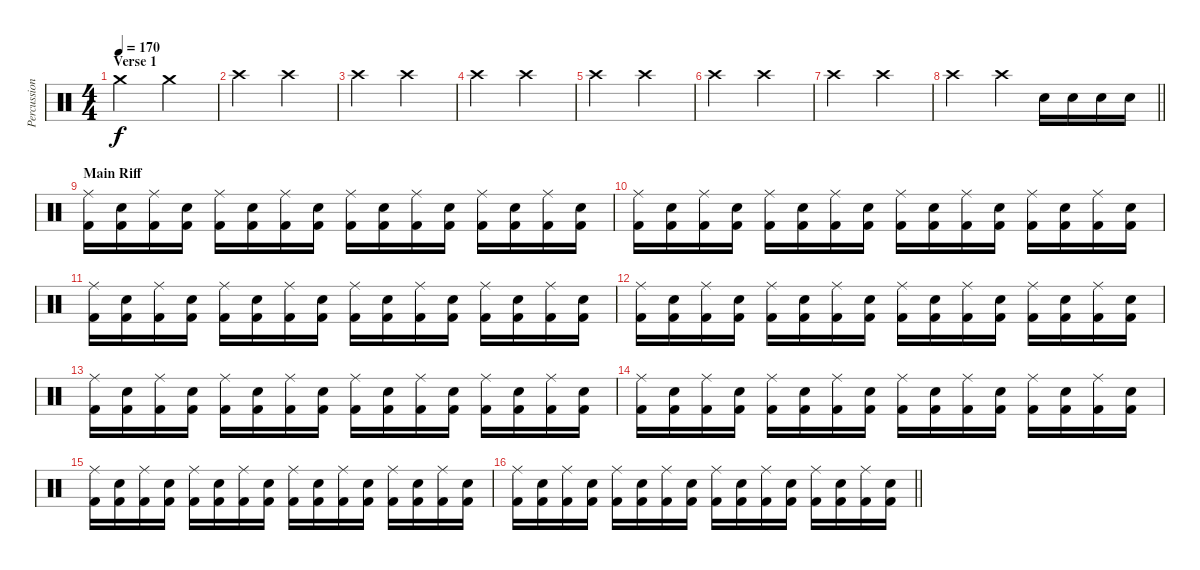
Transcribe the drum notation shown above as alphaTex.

\track ("Percussion" "Percussion") {instrument percussion}
\staff {score}
\articulation defaults
\ts (4 4)
\section ("" "Verse 1")
\tempo 170
\clef neutral
\ks c "Crash medium (hit)".2{dy f} "Crash medium (hit)".2
|
"Crash high (hit)".2 "Crash high (hit)".2 |
"Crash high (hit)".2 "Crash high (hit)".2 |
"Crash high (hit)".2 "Crash high (hit)".2 |
"Crash high (hit)".2 "Crash high (hit)".2 |
"Crash high (hit)".2 "Crash high (hit)".2 |
"Crash high (hit)".2 "Crash high (hit)".2 |
\barLineRight lightlight "Crash high (hit)".2 "Crash high (hit)".4 "Snare (hit) 2".16 "Snare (hit) 2".16 "Snare (hit) 2".16 "Snare (hit) 2".16
|
\section ("" "Main Riff")
("Ride (middle)" "Kick (hit) 2").16 ("Electric Snare (hit)" "Kick (hit) 2").16 ("Ride (middle)" "Kick (hit) 2").16 ("Electric Snare (hit)" "Kick (hit) 2").16 ("Ride (middle)" "Kick (hit) 2").16 ("Electric Snare (hit)" "Kick (hit) 2").16 ("Ride (middle)" "Kick (hit) 2").16 ("Electric Snare (hit)" "Kick (hit) 2").16 ("Ride (middle)" "Kick (hit) 2").16 ("Electric Snare (hit)" "Kick (hit) 2").16 ("Ride (middle)" "Kick (hit) 2").16 ("Electric Snare (hit)" "Kick (hit) 2").16 ("Ride (middle)" "Kick (hit) 2").16 ("Electric Snare (hit)" "Kick (hit) 2").16 ("Ride (middle)" "Kick (hit) 2").16 ("Electric Snare (hit)" "Kick (hit) 2").16 |
("Ride (middle)" "Kick (hit) 2").16 ("Electric Snare (hit)" "Kick (hit) 2").16 ("Ride (middle)" "Kick (hit) 2").16 ("Electric Snare (hit)" "Kick (hit) 2").16 ("Ride (middle)" "Kick (hit) 2").16 ("Electric Snare (hit)" "Kick (hit) 2").16 ("Ride (middle)" "Kick (hit) 2").16 ("Electric Snare (hit)" "Kick (hit) 2").16 ("Ride (middle)" "Kick (hit) 2").16 ("Electric Snare (hit)" "Kick (hit) 2").16 ("Ride (middle)" "Kick (hit) 2").16 ("Electric Snare (hit)" "Kick (hit) 2").16 ("Ride (middle)" "Kick (hit) 2").16 ("Electric Snare (hit)" "Kick (hit) 2").16 ("Ride (middle)" "Kick (hit) 2").16 ("Electric Snare (hit)" "Kick (hit) 2").16 |
("Ride (middle)" "Kick (hit) 2").16 ("Electric Snare (hit)" "Kick (hit) 2").16 ("Ride (middle)" "Kick (hit) 2").16 ("Electric Snare (hit)" "Kick (hit) 2").16 ("Ride (middle)" "Kick (hit) 2").16 ("Electric Snare (hit)" "Kick (hit) 2").16 ("Ride (middle)" "Kick (hit) 2").16 ("Electric Snare (hit)" "Kick (hit) 2").16 ("Ride (middle)" "Kick (hit) 2").16 ("Electric Snare (hit)" "Kick (hit) 2").16 ("Ride (middle)" "Kick (hit) 2").16 ("Electric Snare (hit)" "Kick (hit) 2").16 ("Ride (middle)" "Kick (hit) 2").16 ("Electric Snare (hit)" "Kick (hit) 2").16 ("Ride (middle)" "Kick (hit) 2").16 ("Electric Snare (hit)" "Kick (hit) 2").16 |
("Ride (middle)" "Kick (hit) 2").16 ("Electric Snare (hit)" "Kick (hit) 2").16 ("Ride (middle)" "Kick (hit) 2").16 ("Electric Snare (hit)" "Kick (hit) 2").16 ("Ride (middle)" "Kick (hit) 2").16 ("Electric Snare (hit)" "Kick (hit) 2").16 ("Ride (middle)" "Kick (hit) 2").16 ("Electric Snare (hit)" "Kick (hit) 2").16 ("Ride (middle)" "Kick (hit) 2").16 ("Electric Snare (hit)" "Kick (hit) 2").16 ("Ride (middle)" "Kick (hit) 2").16 ("Electric Snare (hit)" "Kick (hit) 2").16 ("Ride (middle)" "Kick (hit) 2").16 ("Electric Snare (hit)" "Kick (hit) 2").16 ("Ride (middle)" "Kick (hit) 2").16 ("Electric Snare (hit)" "Kick (hit) 2").16 |
("Ride (middle)" "Kick (hit) 2").16 ("Electric Snare (hit)" "Kick (hit) 2").16 ("Ride (middle)" "Kick (hit) 2").16 ("Electric Snare (hit)" "Kick (hit) 2").16 ("Ride (middle)" "Kick (hit) 2").16 ("Electric Snare (hit)" "Kick (hit) 2").16 ("Ride (middle)" "Kick (hit) 2").16 ("Electric Snare (hit)" "Kick (hit) 2").16 ("Ride (middle)" "Kick (hit) 2").16 ("Electric Snare (hit)" "Kick (hit) 2").16 ("Ride (middle)" "Kick (hit) 2").16 ("Electric Snare (hit)" "Kick (hit) 2").16 ("Ride (middle)" "Kick (hit) 2").16 ("Electric Snare (hit)" "Kick (hit) 2").16 ("Ride (middle)" "Kick (hit) 2").16 ("Electric Snare (hit)" "Kick (hit) 2").16 |
("Ride (middle)" "Kick (hit) 2").16 ("Electric Snare (hit)" "Kick (hit) 2").16 ("Ride (middle)" "Kick (hit) 2").16 ("Electric Snare (hit)" "Kick (hit) 2").16 ("Ride (middle)" "Kick (hit) 2").16 ("Electric Snare (hit)" "Kick (hit) 2").16 ("Ride (middle)" "Kick (hit) 2").16 ("Electric Snare (hit)" "Kick (hit) 2").16 ("Ride (middle)" "Kick (hit) 2").16 ("Electric Snare (hit)" "Kick (hit) 2").16 ("Ride (middle)" "Kick (hit) 2").16 ("Electric Snare (hit)" "Kick (hit) 2").16 ("Ride (middle)" "Kick (hit) 2").16 ("Electric Snare (hit)" "Kick (hit) 2").16 ("Ride (middle)" "Kick (hit) 2").16 ("Electric Snare (hit)" "Kick (hit) 2").16 |
("Ride (middle)" "Kick (hit) 2").16 ("Electric Snare (hit)" "Kick (hit) 2").16 ("Ride (middle)" "Kick (hit) 2").16 ("Electric Snare (hit)" "Kick (hit) 2").16 ("Ride (middle)" "Kick (hit) 2").16 ("Electric Snare (hit)" "Kick (hit) 2").16 ("Ride (middle)" "Kick (hit) 2").16 ("Electric Snare (hit)" "Kick (hit) 2").16 ("Ride (middle)" "Kick (hit) 2").16 ("Electric Snare (hit)" "Kick (hit) 2").16 ("Ride (middle)" "Kick (hit) 2").16 ("Electric Snare (hit)" "Kick (hit) 2").16 ("Ride (middle)" "Kick (hit) 2").16 ("Electric Snare (hit)" "Kick (hit) 2").16 ("Ride (middle)" "Kick (hit) 2").16 ("Electric Snare (hit)" "Kick (hit) 2").16 |
\barLineRight lightlight
("Ride (middle)" "Kick (hit) 2").16 ("Electric Snare (hit)" "Kick (hit) 2").16 ("Ride (middle)" "Kick (hit) 2").16 ("Electric Snare (hit)" "Kick (hit) 2").16 ("Ride (middle)" "Kick (hit) 2").16 ("Electric Snare (hit)" "Kick (hit) 2").16 ("Ride (middle)" "Kick (hit) 2").16 ("Electric Snare (hit)" "Kick (hit) 2").16 ("Ride (middle)" "Kick (hit) 2").16 ("Electric Snare (hit)" "Kick (hit) 2").16 ("Ride (middle)" "Kick (hit) 2").16 ("Electric Snare (hit)" "Kick (hit) 2").16 ("Ride (middle)" "Kick (hit) 2").16 ("Electric Snare (hit)" "Kick (hit) 2").16 ("Ride (middle)" "Kick (hit) 2").16 ("Electric Snare (hit)" "Kick (hit) 2").16
